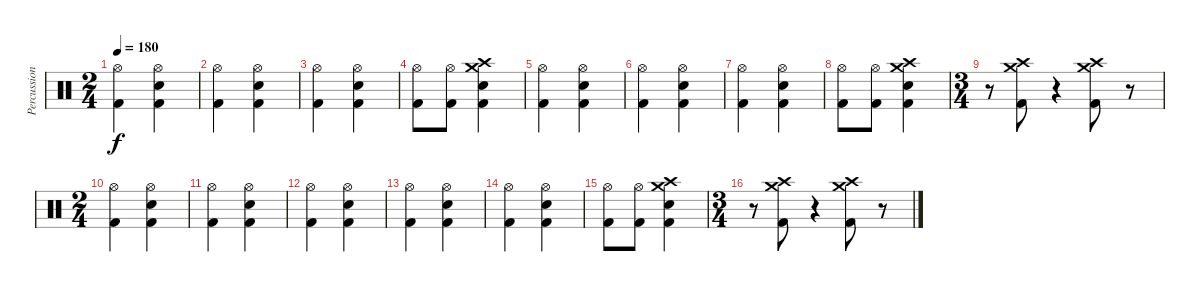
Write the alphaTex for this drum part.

\track ("Percussion" "Percussion") {instrument percussion}
\staff {score}
\articulation defaults
\ts (2 4)
\tempo 180
\clef neutral
\ks c
("Hi-Hat (open)" "Kick (hit) 2").4{dy f} ("Hi-Hat (open)" "Snare (hit) 2" "Kick (hit) 2").4 |
("Hi-Hat (open)" "Kick (hit) 2").4 ("Hi-Hat (open)" "Snare (hit) 2" "Kick (hit) 2").4 |
("Hi-Hat (open)" "Kick (hit) 2").4 ("Hi-Hat (open)" "Snare (hit) 2" "Kick (hit) 2").4 |
("Hi-Hat (open)" "Kick (hit) 2").8 ("Hi-Hat (open)" "Kick (hit) 2").8 ("Crash medium (hit)" "Crash high (hit)" "Snare (hit) 2" "Kick (hit) 2").4 |
("Hi-Hat (open)" "Kick (hit) 2").4 ("Hi-Hat (open)" "Snare (hit) 2" "Kick (hit) 2").4 |
("Hi-Hat (open)" "Kick (hit) 2").4 ("Hi-Hat (open)" "Snare (hit) 2" "Kick (hit) 2").4 |
("Hi-Hat (open)" "Kick (hit) 2").4 ("Hi-Hat (open)" "Snare (hit) 2" "Kick (hit) 2").4 |
("Hi-Hat (open)" "Kick (hit) 2").8 ("Hi-Hat (open)" "Kick (hit) 2").8 ("Crash medium (hit)" "Crash high (hit)" "Snare (hit) 2" "Kick (hit) 2").4 |
\ts (3 4)
r.8 ("Crash medium (hit)" "Crash high (hit)" "Kick (hit) 2").8 r.4 ("Crash medium (hit)" "Crash high (hit)" "Kick (hit) 2").8 r.8 |
\ts (2 4)
("Hi-Hat (open)" "Kick (hit) 2").4 ("Hi-Hat (open)" "Snare (hit) 2" "Kick (hit) 2").4 |
("Hi-Hat (open)" "Kick (hit) 2").4 ("Hi-Hat (open)" "Snare (hit) 2" "Kick (hit) 2").4 |
("Hi-Hat (open)" "Kick (hit) 2").4 ("Hi-Hat (open)" "Snare (hit) 2" "Kick (hit) 2").4 |
("Hi-Hat (open)" "Kick (hit) 2").4 ("Hi-Hat (open)" "Snare (hit) 2" "Kick (hit) 2").4 |
("Hi-Hat (open)" "Kick (hit) 2").4 ("Hi-Hat (open)" "Snare (hit) 2" "Kick (hit) 2").4 |
("Hi-Hat (open)" "Kick (hit) 2").8 ("Hi-Hat (open)" "Kick (hit) 2").8 ("Crash medium (hit)" "Crash high (hit)" "Snare (hit) 2" "Kick (hit) 2").4 |
\ts (3 4)
r.8 ("Crash medium (hit)" "Crash high (hit)" "Kick (hit) 2").8 r.4 ("Crash medium (hit)" "Crash high (hit)" "Kick (hit) 2").8 r.8
